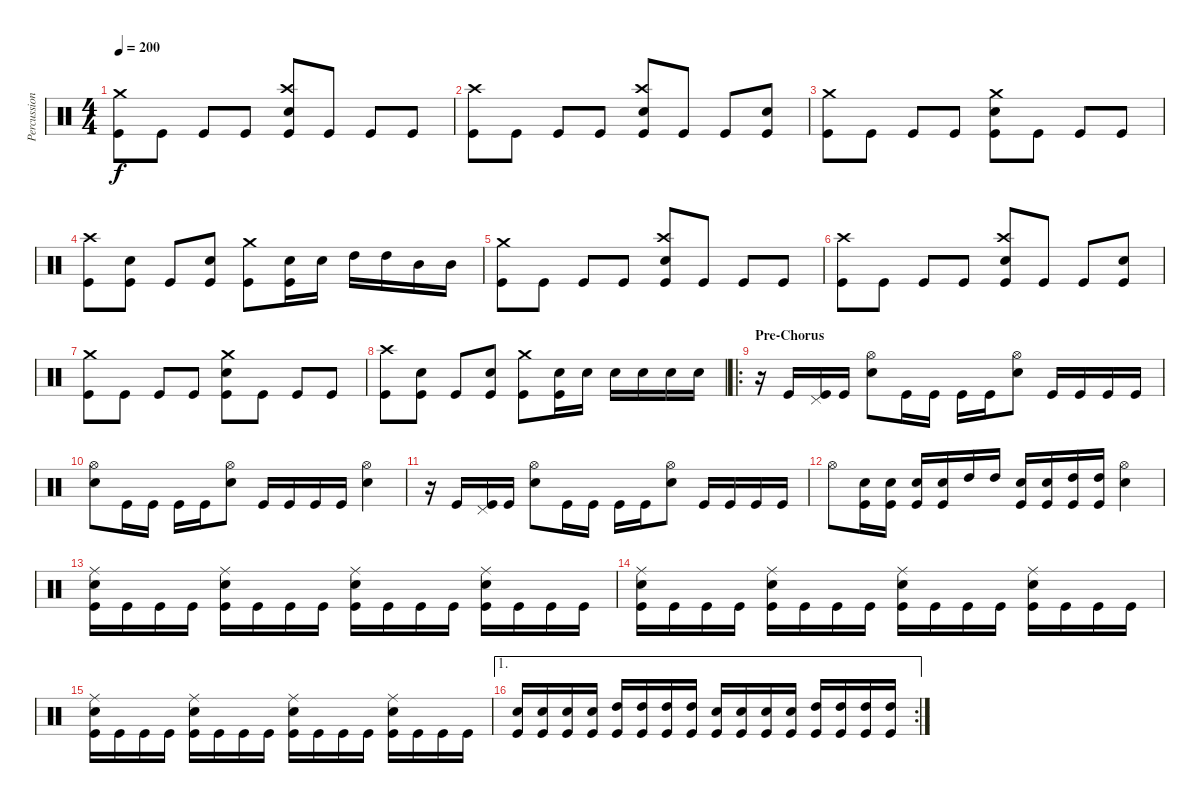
\track ("Percussion" "Percussion") {instrument percussion}
\staff {score}
\articulation defaults
\ts (4 4)
\tempo 200
\clef neutral
\ks c
("Crash medium (hit)" "Kick (hit)").8{dy f} "Kick (hit)".8 "Kick (hit)".8 "Kick (hit)".8 ("Crash high (hit)" "Snare (hit) 2" "Kick (hit)").8 "Kick (hit)".8 "Kick (hit)".8 "Kick (hit)".8 |
("Crash high (hit)" "Kick (hit)").8 "Kick (hit)".8 "Kick (hit)".8 "Kick (hit)".8 ("Crash high (hit)" "Snare (hit) 2" "Kick (hit)").8 "Kick (hit)".8 "Kick (hit)".8 ("Snare (hit) 2" "Kick (hit)").8 |
("Crash medium (hit)" "Kick (hit)").8 "Kick (hit)".8 "Kick (hit)".8 "Kick (hit)".8 ("Crash medium (hit)" "Snare (hit) 2" "Kick (hit)").8 "Kick (hit)".8 "Kick (hit)".8 "Kick (hit)".8 |
("Crash high (hit)" "Kick (hit)").8 ("Snare (hit) 2" "Kick (hit)").8 "Kick (hit)".8 ("Snare (hit) 2" "Kick (hit)").8 ("Crash medium (hit)" "Kick (hit)").8 ("Snare (hit) 2" "Kick (hit)").16 "Snare (hit) 2".16 "High Tom (hit)".16 "High Tom (hit)".16 "Mid Tom (hit)".16 "Mid Tom (hit)".16 |
("Crash medium (hit)" "Kick (hit)").8 "Kick (hit)".8 "Kick (hit)".8 "Kick (hit)".8 ("Crash high (hit)" "Snare (hit) 2" "Kick (hit)").8 "Kick (hit)".8 "Kick (hit)".8 "Kick (hit)".8 |
("Crash high (hit)" "Kick (hit)").8 "Kick (hit)".8 "Kick (hit)".8 "Kick (hit)".8 ("Crash high (hit)" "Snare (hit) 2" "Kick (hit)").8 "Kick (hit)".8 "Kick (hit)".8 ("Snare (hit) 2" "Kick (hit)").8 |
("Crash medium (hit)" "Kick (hit)").8 "Kick (hit)".8 "Kick (hit)".8 "Kick (hit)".8 ("Crash medium (hit)" "Snare (hit) 2" "Kick (hit)").8 "Kick (hit)".8 "Kick (hit)".8 "Kick (hit)".8 |
("Crash high (hit)" "Kick (hit)").8 ("Snare (hit) 2" "Kick (hit)").8 "Kick (hit)".8 ("Snare (hit) 2" "Kick (hit)").8 ("Crash medium (hit)" "Kick (hit)").8 ("Snare (hit) 2" "Kick (hit)").16 "Snare (hit) 2".16 "Snare (hit) 2".16 "Snare (hit) 2".16 "Snare (hit) 2".16 "Snare (hit) 2".16 |
\ro
\section ("" "Pre-Chorus")
r.16 "Kick (hit)".16 ("Pedal Hi-Hat (hit)" "Kick (hit)").16 "Kick (hit)".16 ("Snare (hit) 2" "Hi-Hat (open)").8 "Kick (hit)".16 "Kick (hit)".16 "Kick (hit)".16 "Kick (hit)".16 ("Snare (hit) 2" "Hi-Hat (open)").8 "Kick (hit)".16 "Kick (hit)".16 "Kick (hit)".16 "Kick (hit)".16 |
("Snare (hit) 2" "Hi-Hat (open)").8 "Kick (hit)".16 "Kick (hit)".16 "Kick (hit)".16 "Kick (hit)".16 ("Snare (hit) 2" "Hi-Hat (open)").8 "Kick (hit)".16 "Kick (hit)".16 "Kick (hit)".16 "Kick (hit)".16 ("Snare (hit) 2" "Hi-Hat (open)").4 |
r.16 "Kick (hit)".16 ("Pedal Hi-Hat (hit)" "Kick (hit)").16 "Kick (hit)".16 ("Snare (hit) 2" "Hi-Hat (open)").8 "Kick (hit)".16 "Kick (hit)".16 "Kick (hit)".16 "Kick (hit)".16 ("Snare (hit) 2" "Hi-Hat (open)").8 "Kick (hit)".16 "Kick (hit)".16 "Kick (hit)".16 "Kick (hit)".16 |
"Hi-Hat (open)".8 ("Snare (hit) 2" "Kick (hit)").16 ("Snare (hit) 2" "Kick (hit)").16 ("Snare (hit) 2" "Kick (hit)").16 ("Snare (hit) 2" "Kick (hit)").16 "High Tom (hit)".16 "High Tom (hit)".16 ("Snare (hit) 2" "Kick (hit)").16 ("Snare (hit) 2" "Kick (hit)").16 ("High Tom (hit)" "Kick (hit)").16 ("High Tom (hit)" "Kick (hit)").16 ("Snare (hit) 2" "Hi-Hat (open)").4 |
("Snare (hit) 2" "Ride (middle)" "Kick (hit)").16 "Kick (hit)".16 "Kick (hit)".16 "Kick (hit)".16 ("Snare (hit) 2" "Ride (middle)" "Kick (hit)").16 "Kick (hit)".16 "Kick (hit)".16 "Kick (hit)".16 ("Snare (hit) 2" "Ride (middle)" "Kick (hit)").16 "Kick (hit)".16 "Kick (hit)".16 "Kick (hit)".16 ("Snare (hit) 2" "Ride (middle)" "Kick (hit)").16 "Kick (hit)".16 "Kick (hit)".16 "Kick (hit)".16 |
("Snare (hit) 2" "Ride (middle)" "Kick (hit)").16 "Kick (hit)".16 "Kick (hit)".16 "Kick (hit)".16 ("Snare (hit) 2" "Ride (middle)" "Kick (hit)").16 "Kick (hit)".16 "Kick (hit)".16 "Kick (hit)".16 ("Snare (hit) 2" "Ride (middle)" "Kick (hit)").16 "Kick (hit)".16 "Kick (hit)".16 "Kick (hit)".16 ("Snare (hit) 2" "Ride (middle)" "Kick (hit)").16 "Kick (hit)".16 "Kick (hit)".16 "Kick (hit)".16 |
("Snare (hit) 2" "Ride (middle)" "Kick (hit)").16 "Kick (hit)".16 "Kick (hit)".16 "Kick (hit)".16 ("Snare (hit) 2" "Ride (middle)" "Kick (hit)").16 "Kick (hit)".16 "Kick (hit)".16 "Kick (hit)".16 ("Snare (hit) 2" "Ride (middle)" "Kick (hit)").16 "Kick (hit)".16 "Kick (hit)".16 "Kick (hit)".16 ("Snare (hit) 2" "Ride (middle)" "Kick (hit)").16 "Kick (hit)".16 "Kick (hit)".16 "Kick (hit)".16 |
\ae 1
\rc 2
("Snare (hit) 2" "Kick (hit)").16 ("Snare (hit) 2" "Kick (hit)").16 ("Snare (hit) 2" "Kick (hit)").16 ("Snare (hit) 2" "Kick (hit)").16 ("High Tom (hit)" "Kick (hit)").16 ("High Tom (hit)" "Kick (hit)").16 ("High Tom (hit)" "Kick (hit)").16 ("High Tom (hit)" "Kick (hit)").16 ("Snare (hit) 2" "Kick (hit)").16 ("Snare (hit) 2" "Kick (hit)").16 ("Snare (hit) 2" "Kick (hit)").16 ("Snare (hit) 2" "Kick (hit)").16 ("High Tom (hit)" "Kick (hit)").16 ("High Tom (hit)" "Kick (hit)").16 ("High Tom (hit)" "Kick (hit)").16 ("High Tom (hit)" "Kick (hit)").16
